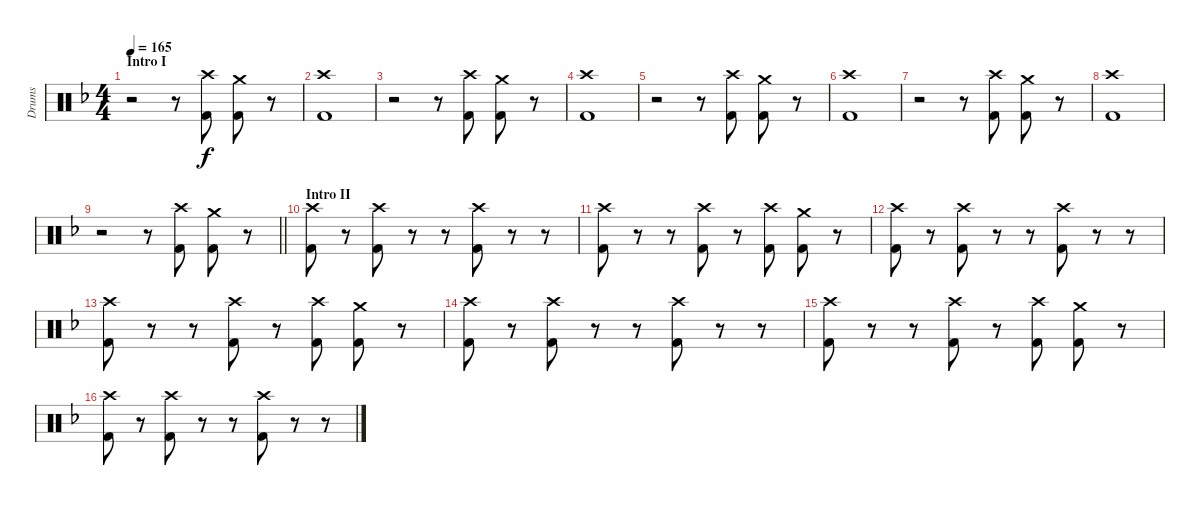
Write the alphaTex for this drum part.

\track ("Drums" "Drums") {instrument percussion}
\staff {score}
\articulation defaults
\ts (4 4)
\section ("" "Intro I")
\tempo 165
\clef neutral
\ks f
r.2{dy f} r.8 ("Crash high (hit)" "Kick (hit) 2").8 ("Crash medium (hit)" "Kick (hit) 2").8 r.8 |
("Crash high (hit)" "Kick (hit) 2").1 |
r.2 r.8 ("Crash high (hit)" "Kick (hit) 2").8 ("Crash medium (hit)" "Kick (hit) 2").8 r.8 |
("Crash high (hit)" "Kick (hit) 2").1 |
r.2 r.8 ("Crash high (hit)" "Kick (hit) 2").8 ("Crash medium (hit)" "Kick (hit) 2").8 r.8 |
("Crash high (hit)" "Kick (hit) 2").1 |
r.2 r.8 ("Crash high (hit)" "Kick (hit) 2").8 ("Crash medium (hit)" "Kick (hit) 2").8 r.8 |
("Crash high (hit)" "Kick (hit) 2").1 |
\barLineRight lightlight
r.2 r.8 ("Crash high (hit)" "Kick (hit) 2").8 ("Crash medium (hit)" "Kick (hit) 2").8 r.8 |
\section ("" "Intro II")
("Crash high (hit)" "Kick (hit) 2").8 r.8 ("Crash high (hit)" "Kick (hit) 2").8 r.8 r.8 ("Crash high (hit)" "Kick (hit) 2").8 r.8 r.8 |
("Crash high (hit)" "Kick (hit) 2").8 r.8 r.8 ("Crash high (hit)" "Kick (hit) 2").8 r.8 ("Crash high (hit)" "Kick (hit) 2").8 ("Crash medium (hit)" "Kick (hit) 2").8 r.8 |
("Crash high (hit)" "Kick (hit) 2").8 r.8 ("Crash high (hit)" "Kick (hit) 2").8 r.8 r.8 ("Crash high (hit)" "Kick (hit) 2").8 r.8 r.8 |
("Crash high (hit)" "Kick (hit) 2").8 r.8 r.8 ("Crash high (hit)" "Kick (hit) 2").8 r.8 ("Crash high (hit)" "Kick (hit) 2").8 ("Crash medium (hit)" "Kick (hit) 2").8 r.8 |
("Crash high (hit)" "Kick (hit) 2").8 r.8 ("Crash high (hit)" "Kick (hit) 2").8 r.8 r.8 ("Crash high (hit)" "Kick (hit) 2").8 r.8 r.8 |
("Crash high (hit)" "Kick (hit) 2").8 r.8 r.8 ("Crash high (hit)" "Kick (hit) 2").8 r.8 ("Crash high (hit)" "Kick (hit) 2").8 ("Crash medium (hit)" "Kick (hit) 2").8 r.8 |
("Crash high (hit)" "Kick (hit) 2").8 r.8 ("Crash high (hit)" "Kick (hit) 2").8 r.8 r.8 ("Crash high (hit)" "Kick (hit) 2").8 r.8 r.8
